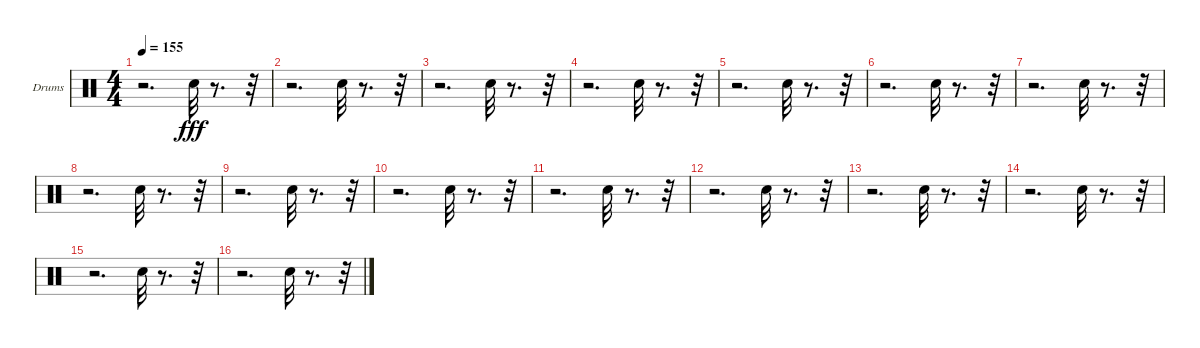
\bracketExtendMode groupsimilarinstruments
\firstSystemTrackNameOrientation horizontal
\otherSystemsTrackNameOrientation horizontal
\track ("Е. Кулаков" "Drums") {instrument percussion}
\staff {score}
\articulation defaults
\ts (4 4)
\tempo 155
\clef neutral
\ks c
r.2{d dy fff} "Snare (hit) 2".32 r.8{d} r.32 |
r.2{d} "Snare (hit) 2".32 r.8{d} r.32 |
r.2{d} "Snare (hit) 2".32 r.8{d} r.32 |
r.2{d} "Snare (hit) 2".32 r.8{d} r.32 |
r.2{d} "Snare (hit) 2".32 r.8{d} r.32 |
r.2{d} "Snare (hit) 2".32 r.8{d} r.32 |
r.2{d} "Snare (hit) 2".32 r.8{d} r.32 |
r.2{d} "Snare (hit) 2".32 r.8{d} r.32 |
r.2{d} "Snare (hit) 2".32 r.8{d} r.32 |
r.2{d} "Snare (hit) 2".32 r.8{d} r.32 |
r.2{d} "Snare (hit) 2".32 r.8{d} r.32 |
r.2{d} "Snare (hit) 2".32 r.8{d} r.32 |
r.2{d} "Snare (hit) 2".32 r.8{d} r.32 |
r.2{d} "Snare (hit) 2".32 r.8{d} r.32 |
r.2{d} "Snare (hit) 2".32 r.8{d} r.32 |
r.2{d} "Snare (hit) 2".32 r.8{d} r.32
